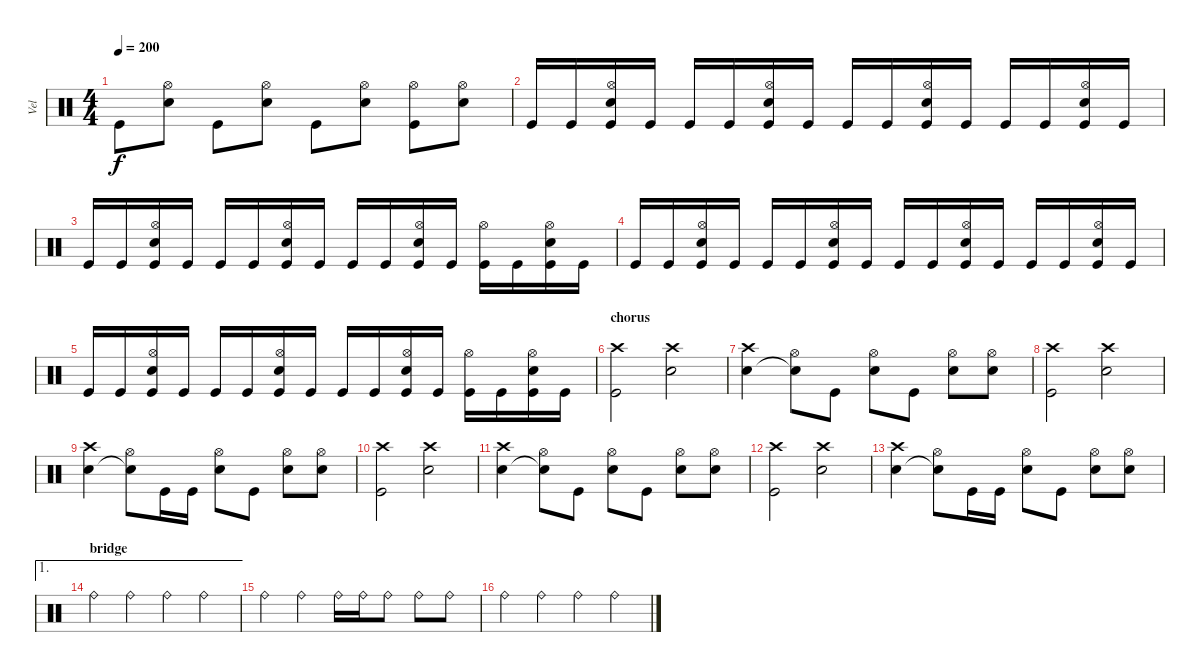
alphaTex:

\track ("Vel" "Vel") {instrument percussion}
\staff {score}
\articulation defaults
\ts (4 4)
\tempo 200
\clef neutral
\ks c "Kick (hit)".8{dy f}
("Hi-Hat (open)" "Electric Snare (hit)").8 "Kick (hit)".8 ("Hi-Hat (open)" "Electric Snare (hit)").8 "Kick (hit)".8 ("Hi-Hat (open)" "Electric Snare (hit)").8 ("Hi-Hat (open)" "Kick (hit)").8 ("Hi-Hat (open)" "Electric Snare (hit)").8 |
"Kick (hit)".16 "Kick (hit)".16 ("Hi-Hat (open)" "Electric Snare (hit)" "Kick (hit)").16 "Kick (hit)".16 "Kick (hit)".16 "Kick (hit)".16 ("Hi-Hat (open)" "Electric Snare (hit)" "Kick (hit)").16 "Kick (hit)".16 "Kick (hit)".16 "Kick (hit)".16 ("Hi-Hat (open)" "Electric Snare (hit)" "Kick (hit)").16 "Kick (hit)".16 "Kick (hit)".16 "Kick (hit)".16 ("Hi-Hat (open)" "Electric Snare (hit)" "Kick (hit)").16 "Kick (hit)".16 |
"Kick (hit)".16 "Kick (hit)".16 ("Hi-Hat (open)" "Electric Snare (hit)" "Kick (hit)").16 "Kick (hit)".16 "Kick (hit)".16 "Kick (hit)".16 ("Hi-Hat (open)" "Electric Snare (hit)" "Kick (hit)").16 "Kick (hit)".16 "Kick (hit)".16 "Kick (hit)".16 ("Hi-Hat (open)" "Electric Snare (hit)" "Kick (hit)").16 "Kick (hit)".16 ("Hi-Hat (open)" "Kick (hit)").16 "Kick (hit)".16 ("Hi-Hat (open)" "Electric Snare (hit)" "Kick (hit)").16 "Kick (hit)".16 |
"Kick (hit)".16 "Kick (hit)".16 ("Hi-Hat (open)" "Electric Snare (hit)" "Kick (hit)").16 "Kick (hit)".16 "Kick (hit)".16 "Kick (hit)".16 ("Hi-Hat (open)" "Electric Snare (hit)" "Kick (hit)").16 "Kick (hit)".16 "Kick (hit)".16 "Kick (hit)".16 ("Hi-Hat (open)" "Electric Snare (hit)" "Kick (hit)").16 "Kick (hit)".16 "Kick (hit)".16 "Kick (hit)".16 ("Hi-Hat (open)" "Electric Snare (hit)" "Kick (hit)").16 "Kick (hit)".16 |
"Kick (hit)".16 "Kick (hit)".16 ("Hi-Hat (open)" "Electric Snare (hit)" "Kick (hit)").16 "Kick (hit)".16 "Kick (hit)".16 "Kick (hit)".16 ("Hi-Hat (open)" "Electric Snare (hit)" "Kick (hit)").16 "Kick (hit)".16 "Kick (hit)".16 "Kick (hit)".16 ("Hi-Hat (open)" "Electric Snare (hit)" "Kick (hit)").16 "Kick (hit)".16 ("Hi-Hat (open)" "Kick (hit)").16 "Kick (hit)".16 ("Hi-Hat (open)" "Electric Snare (hit)" "Kick (hit)").16 "Kick (hit)".16 |
\section ("" "chorus")
("Crash high (hit)" "Kick (hit)").2 ("Crash high (hit)" "Electric Snare (hit)").2 |
("Crash high (hit)" "Electric Snare (hit)").4 ("Hi-Hat (open)" "Snare (hit)"{t}).8 "Kick (hit)".8 ("Hi-Hat (open)" "Electric Snare (hit)").8 "Kick (hit)".8 ("Hi-Hat (open)" "Electric Snare (hit)").8 ("Hi-Hat (open)" "Electric Snare (hit)").8 |
("Crash high (hit)" "Kick (hit)").2 ("Crash high (hit)" "Electric Snare (hit)").2 |
("Crash high (hit)" "Electric Snare (hit)").4 ("Hi-Hat (open)" "Snare (hit)"{t}).8 "Kick (hit)".16 "Kick (hit)".16 ("Hi-Hat (open)" "Electric Snare (hit)").8 "Kick (hit)".8 ("Hi-Hat (open)" "Electric Snare (hit)").8 ("Hi-Hat (open)" "Electric Snare (hit)").8 |
("Crash high (hit)" "Kick (hit)").2 ("Crash high (hit)" "Electric Snare (hit)").2 |
("Crash high (hit)" "Electric Snare (hit)").4 ("Hi-Hat (open)" "Snare (hit)"{t}).8 "Kick (hit)".8 ("Hi-Hat (open)" "Electric Snare (hit)").8 "Kick (hit)".8 ("Hi-Hat (open)" "Electric Snare (hit)").8 ("Hi-Hat (open)" "Electric Snare (hit)").8 |
("Crash high (hit)" "Kick (hit)").2 ("Crash high (hit)" "Electric Snare (hit)").2 |
("Crash high (hit)" "Electric Snare (hit)").4 ("Hi-Hat (open)" "Snare (hit)"{t}).8 "Kick (hit)".16 "Kick (hit)".16 ("Hi-Hat (open)" "Electric Snare (hit)").8 "Kick (hit)".8 ("Hi-Hat (open)" "Electric Snare (hit)").8 ("Hi-Hat (open)" "Electric Snare (hit)").8 |
\ae 1
\section ("" "bridge")
"Ride (bell)".4 "Ride (bell)".4 "Ride (bell)".4 "Ride (bell)".4 |
"Ride (bell)".4 "Ride (bell)".4 "Ride (bell)".16 "Ride (bell)".16 "Ride (bell)".8 "Ride (bell)".8 "Ride (bell)".8 |
"Ride (bell)".4 "Ride (bell)".4 "Ride (bell)".4 "Ride (bell)".4
